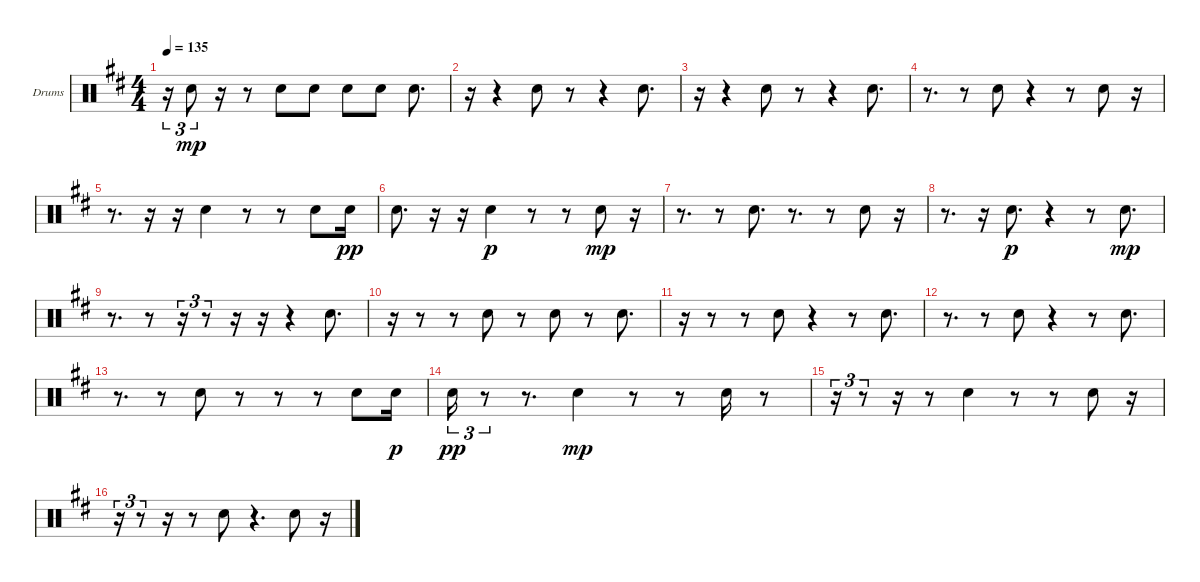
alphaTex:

\bracketExtendMode groupsimilarinstruments
\firstSystemTrackNameOrientation horizontal
\otherSystemsTrackNameOrientation horizontal
\track ("Snare" "Drums") {instrument percussion}
\staff {score}
\articulation defaults
\ts (4 4)
\tempo 135
\clef neutral
\ks d
r.16{tu (3 2) dy mp} "Snare (hit) 2".8{tu (3 2)} r.16 r.8 "Snare (hit) 2".8 "Snare (hit) 2".8 "Snare (hit) 2".8 "Snare (hit) 2".8 "Snare (hit) 2".8{d} |
r.16 r.4 "Snare (hit) 2".8 r.8 r.4 "Snare (hit) 2".8{d} |
r.16 r.4 "Snare (hit) 2".8 r.8 r.4 "Snare (hit) 2".8{d} |
r.8{d} r.8 "Snare (hit) 2".8 r.4 r.8 "Snare (hit) 2".8 r.16 |
r.8{d} r.16 r.16 "Snare (hit) 2".4 r.8 r.8 "Snare (hit) 2".8 "Snare (hit) 2".16{dy pp} |
"Snare (hit) 2".8{d} r.16 r.16 "Snare (hit) 2".4{dy p} r.8 r.8 "Snare (hit) 2".8{dy mp} r.16 |
r.8{d} r.8 "Snare (hit) 2".8{d} r.8{d} r.8 "Snare (hit) 2".8 r.16 |
r.8{d} r.16 "Snare (hit) 2".8{d dy p} r.4 r.8 "Snare (hit) 2".8{d dy mp} |
r.8{d} r.8 r.16{tu (3 2)} r.8{tu (3 2)} r.16 r.16 r.4 "Snare (hit) 2".8{d} |
r.16 r.8 r.8 "Snare (hit) 2".8 r.8 "Snare (hit) 2".8 r.8 "Snare (hit) 2".8{d} |
r.16 r.8 r.8 "Snare (hit) 2".8 r.4 r.8 "Snare (hit) 2".8{d} |
r.8{d} r.8 "Snare (hit) 2".8 r.4 r.8 "Snare (hit) 2".8{d} |
r.8{d} r.8 "Snare (hit) 2".8 r.8 r.8 r.8 "Snare (hit) 2".8 "Snare (hit) 2".16{dy p} |
"Snare (hit) 2".16{tu (3 2) dy pp} r.8{tu (3 2)} r.8{d} "Snare (hit) 2".4{dy mp} r.8 r.8 "Snare (hit) 2".16 r.8 |
r.16{tu (3 2)} r.8{tu (3 2)} r.16 r.8 "Snare (hit) 2".4 r.8 r.8 "Snare (hit) 2".8 r.16 |
r.16{tu (3 2)} r.8{tu (3 2)} r.16 r.8 "Snare (hit) 2".8 r.4{d} "Snare (hit) 2".8 r.16
